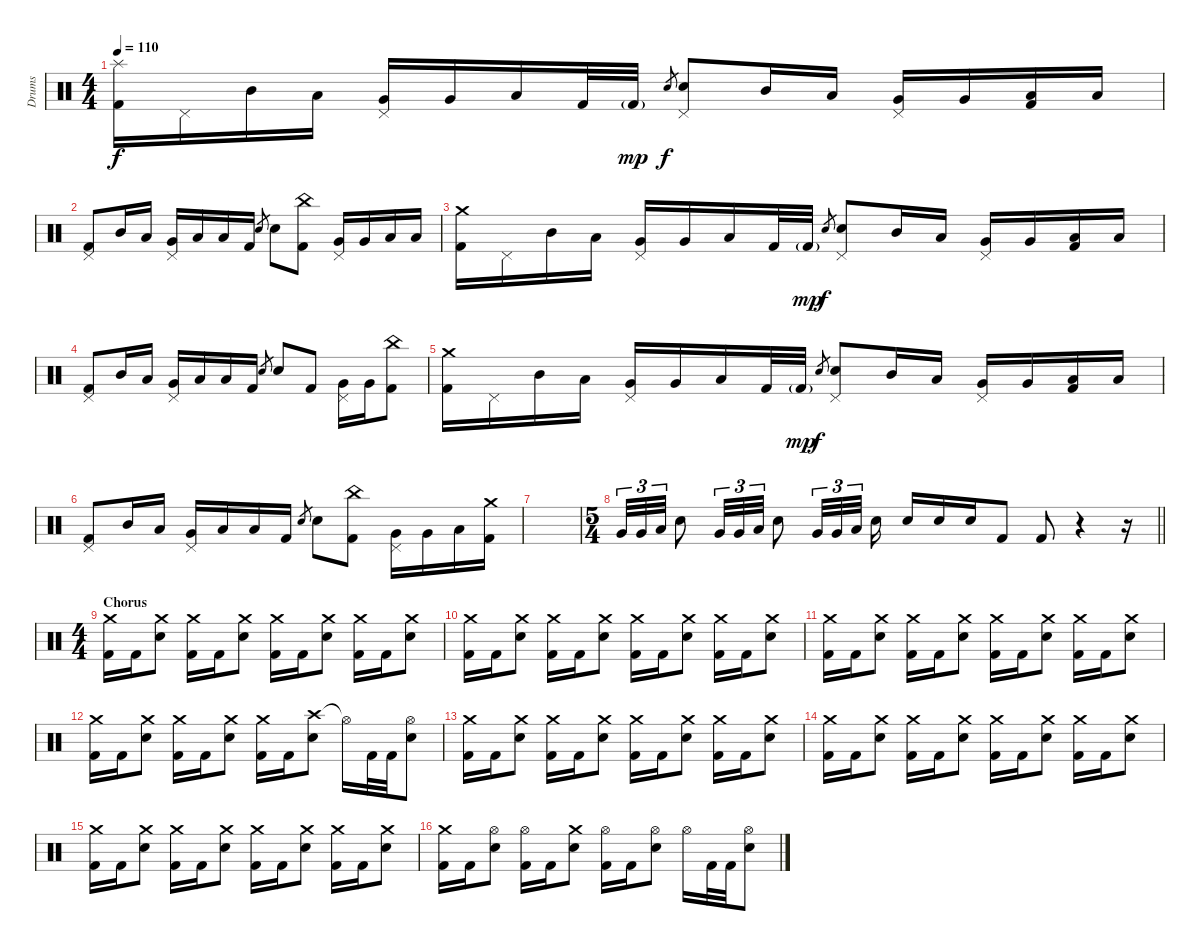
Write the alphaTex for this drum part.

\track ("Drums" "Drums") {instrument percussion}
\staff {score}
\articulation defaults
\ts (4 4)
\tempo 110
\clef neutral
\ks c
("Splash (hit)" "Kick (hit) 2").16{dy f} "Pedal Hi-Hat (hit)".16 "Mid Tom (hit)".16 "Low Tom (hit)".16 ("Pedal Hi-Hat (hit)" "Very Low Tom (hit)").16 "Very Low Tom (hit)".16 "Low Floor Tom (hit)".16 "Kick (hit) 2".32 "Kick (hit) 2"{g}.32{dy mp} "Electric Snare (hit)".8{gr dy f} ("Pedal Hi-Hat (hit)" "Electric Snare (hit)").8 "Mid Tom (hit)".16 "Low Tom (hit)".16 ("Pedal Hi-Hat (hit)" "Very Low Tom (hit)").16 "Very Low Tom (hit)".16 ("Low Floor Tom (hit)" "Kick (hit) 2").16 "Low Floor Tom (hit)".16 |
("Pedal Hi-Hat (hit)" "Kick (hit) 2").8 "Mid Tom (hit)".16 "Low Tom (hit)".16 ("Pedal Hi-Hat (hit)" "Very Low Tom (hit)").16 "Low Floor Tom (hit)".16 "Low Floor Tom (hit)".16 "Kick (hit) 2".16 "Electric Snare (hit)".8{gr} "Electric Snare (hit)".8 ("China (hit)" "Kick (hit) 2").8 ("Pedal Hi-Hat (hit)" "Very Low Tom (hit)").16 "Very Low Tom (hit)".16 "Low Floor Tom (hit)".16 "Low Floor Tom (hit)".16 |
("Crash medium (hit)" "Kick (hit) 2").16 "Pedal Hi-Hat (hit)".16 "Mid Tom (hit)".16 "Low Tom (hit)".16 ("Pedal Hi-Hat (hit)" "Very Low Tom (hit)").16 "Very Low Tom (hit)".16 "Low Floor Tom (hit)".16 "Kick (hit) 2".32 "Kick (hit) 2"{g}.32{dy mp} "Electric Snare (hit)".8{gr dy f} ("Pedal Hi-Hat (hit)" "Electric Snare (hit)").8 "Mid Tom (hit)".16 "Low Tom (hit)".16 ("Pedal Hi-Hat (hit)" "Very Low Tom (hit)").16 "Very Low Tom (hit)".16 ("Low Floor Tom (hit)" "Kick (hit) 2").16 "Low Floor Tom (hit)".16 |
("Pedal Hi-Hat (hit)" "Kick (hit) 2").8 "Mid Tom (hit)".16 "Low Tom (hit)".16 ("Pedal Hi-Hat (hit)" "Very Low Tom (hit)").16 "Low Floor Tom (hit)".16 "Low Floor Tom (hit)".16 "Kick (hit) 2".16 "Electric Snare (hit)".8{gr} "Electric Snare (hit)".8 "Kick (hit) 2".8 ("Pedal Hi-Hat (hit)" "Very Low Tom (hit)").16 "Very Low Tom (hit)".16 ("China (hit)" "Kick (hit) 2").8 |
("Crash medium (hit)" "Kick (hit) 2").16 "Pedal Hi-Hat (hit)".16 "Mid Tom (hit)".16 "Low Tom (hit)".16 ("Pedal Hi-Hat (hit)" "Very Low Tom (hit)").16 "Very Low Tom (hit)".16 "Low Floor Tom (hit)".16 "Kick (hit) 2".32 "Kick (hit) 2"{g}.32{dy mp} "Electric Snare (hit)".8{gr dy f} ("Pedal Hi-Hat (hit)" "Electric Snare (hit)").8 "Mid Tom (hit)".16 "Low Tom (hit)".16 ("Pedal Hi-Hat (hit)" "Very Low Tom (hit)").16 "Very Low Tom (hit)".16 ("Low Floor Tom (hit)" "Kick (hit) 2").16 "Low Floor Tom (hit)".16 |
("Pedal Hi-Hat (hit)" "Kick (hit) 2").8 "Mid Tom (hit)".16 "Low Tom (hit)".16 ("Pedal Hi-Hat (hit)" "Very Low Tom (hit)").16 "Low Floor Tom (hit)".16 "Low Floor Tom (hit)".16 "Kick (hit) 2".16 "Electric Snare (hit)".8{gr} "Electric Snare (hit)".8 ("China (hit)" "Kick (hit) 2").8 ("Pedal Hi-Hat (hit)" "Very Low Tom (hit)").16 "Very Low Tom (hit)".16 "Low Floor Tom (hit)".16 ("Crash medium (hit)" "Kick (hit) 2").16 |
|
\ts (5 4)
\barLineRight lightlight "Very Low Tom (hit)".32{tu (3 2)} "Very Low Tom (hit)".32{tu (3 2)} "Low Tom (hit)".32{tu (3 2)} "Electric Snare (hit)".8 "Very Low Tom (hit)".32{tu (3 2)} "Very Low Tom (hit)".32{tu (3 2)} "Low Tom (hit)".32{tu (3 2)} "Electric Snare (hit)".8 "Very Low Tom (hit)".32{tu (3 2)} "Very Low Tom (hit)".32{tu (3 2)} "Low Tom (hit)".32{tu (3 2) beam splitsecondary} "Electric Snare (hit)".16 "Electric Snare (hit)".16 "Electric Snare (hit)".16 "Electric Snare (hit)".16 "Kick (hit) 2".8 "Kick (hit) 2".8
r.4 r.16 |
\ts (4 4)
\section ("" "Chorus")
("Crash medium (hit)" "Kick (hit) 2").16 "Kick (hit) 2".16 ("Crash medium (hit)" "Electric Snare (hit)").8 ("Crash medium (hit)" "Kick (hit) 2").16 "Kick (hit) 2".16 ("Crash medium (hit)" "Electric Snare (hit)").8 ("Crash medium (hit)" "Kick (hit) 2").16 "Kick (hit) 2".16 ("Crash medium (hit)" "Electric Snare (hit)").8 ("Crash medium (hit)" "Kick (hit) 2").16 "Kick (hit) 2".16 ("Crash medium (hit)" "Electric Snare (hit)").8 |
("Crash medium (hit)" "Kick (hit) 2").16 "Kick (hit) 2".16 ("Crash medium (hit)" "Electric Snare (hit)").8 ("Crash medium (hit)" "Kick (hit) 2").16 "Kick (hit) 2".16 ("Crash medium (hit)" "Electric Snare (hit)").8 ("Crash medium (hit)" "Kick (hit) 2").16 "Kick (hit) 2".16 ("Crash medium (hit)" "Electric Snare (hit)").8 ("Crash medium (hit)" "Kick (hit) 2").16 "Kick (hit) 2".16 ("Crash medium (hit)" "Electric Snare (hit)").8 |
("Crash medium (hit)" "Kick (hit) 2").16 "Kick (hit) 2".16 ("Crash medium (hit)" "Electric Snare (hit)").8 ("Crash medium (hit)" "Kick (hit) 2").16 "Kick (hit) 2".16 ("Crash medium (hit)" "Electric Snare (hit)").8 ("Crash medium (hit)" "Kick (hit) 2").16 "Kick (hit) 2".16 ("Crash medium (hit)" "Electric Snare (hit)").8 ("Crash medium (hit)" "Kick (hit) 2").16 "Kick (hit) 2".16 ("Crash medium (hit)" "Electric Snare (hit)").8 |
("Crash medium (hit)" "Kick (hit) 2").16 "Kick (hit) 2".16 ("Crash medium (hit)" "Electric Snare (hit)").8 ("Crash medium (hit)" "Kick (hit) 2").16 "Kick (hit) 2".16 ("Crash medium (hit)" "Electric Snare (hit)").8 ("Crash medium (hit)" "Kick (hit) 2").16 "Kick (hit) 2".16 ("Crash high (hit)" "Electric Snare (hit)").8 "Hi-Hat (open)"{t}.16 "Kick (hit) 2".32 "Kick (hit) 2".32 ("Hi-Hat (open)" "Electric Snare (hit)").8 |
("Crash medium (hit)" "Kick (hit) 2").16 "Kick (hit) 2".16 ("Crash medium (hit)" "Electric Snare (hit)").8 ("Crash medium (hit)" "Kick (hit) 2").16 "Kick (hit) 2".16 ("Crash medium (hit)" "Electric Snare (hit)").8 ("Crash medium (hit)" "Kick (hit) 2").16 "Kick (hit) 2".16 ("Crash medium (hit)" "Electric Snare (hit)").8 ("Crash medium (hit)" "Kick (hit) 2").16 "Kick (hit) 2".16 ("Crash medium (hit)" "Electric Snare (hit)").8 |
("Crash medium (hit)" "Kick (hit) 2").16 "Kick (hit) 2".16 ("Crash medium (hit)" "Electric Snare (hit)").8 ("Crash medium (hit)" "Kick (hit) 2").16 "Kick (hit) 2".16 ("Crash medium (hit)" "Electric Snare (hit)").8 ("Crash medium (hit)" "Kick (hit) 2").16 "Kick (hit) 2".16 ("Crash medium (hit)" "Electric Snare (hit)").8 ("Crash medium (hit)" "Kick (hit) 2").16 "Kick (hit) 2".16 ("Crash medium (hit)" "Electric Snare (hit)").8 |
("Crash medium (hit)" "Kick (hit) 2").16 "Kick (hit) 2".16 ("Crash medium (hit)" "Electric Snare (hit)").8 ("Crash medium (hit)" "Kick (hit) 2").16 "Kick (hit) 2".16 ("Crash medium (hit)" "Electric Snare (hit)").8 ("Crash medium (hit)" "Kick (hit) 2").16 "Kick (hit) 2".16 ("Crash medium (hit)" "Electric Snare (hit)").8 ("Crash medium (hit)" "Kick (hit) 2").16 "Kick (hit) 2".16 ("Crash medium (hit)" "Electric Snare (hit)").8 |
("Crash medium (hit)" "Kick (hit) 2").16 "Kick (hit) 2".16 ("Hi-Hat (open)" "Electric Snare (hit)").8 ("Hi-Hat (open)" "Kick (hit) 2").16 "Kick (hit) 2".16 ("Crash medium (hit)" "Electric Snare (hit)").8 ("Hi-Hat (open)" "Kick (hit) 2").16 "Kick (hit) 2".16 ("Hi-Hat (open)" "Electric Snare (hit)").8 "Hi-Hat (open)".16 "Kick (hit) 2".32 "Kick (hit) 2".32 ("Hi-Hat (open)" "Electric Snare (hit)").8
